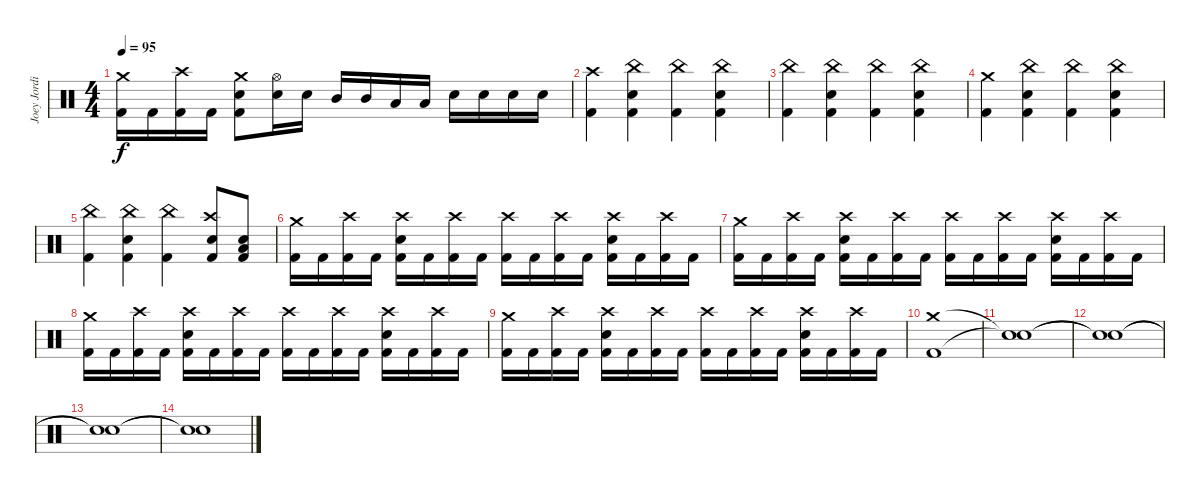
\track ("Joey Jordison" "Joey Jordi") {instrument percussion}
\staff {score}
\articulation defaults
\ts (4 4)
\tempo 95
\clef neutral
\ks c
("Crash medium (hit)" "Kick (hit) 2").16{dy f} "Kick (hit) 2".16 ("Crash high (hit)" "Kick (hit) 2").16 "Kick (hit) 2".16 ("Crash medium (hit)" "Electric Snare (hit)" "Kick (hit) 2").8 ("Hi-Hat (open)" "Electric Snare (hit)").16 "Electric Snare (hit)".16 "Mid Tom (hit)".16 "Mid Tom (hit)".16 "Low Tom (hit)".16 "Low Tom (hit)".16 "Electric Snare (hit)".16 "Electric Snare (hit)".16 "Electric Snare (hit)".16 "Electric Snare (hit)".16 |
("Crash high (hit)" "Kick (hit) 2").4 ("China (hit)" "Electric Snare (hit)" "Kick (hit) 2").4 ("China (hit)" "Kick (hit) 2").4 ("China (hit)" "Electric Snare (hit)" "Kick (hit) 2").4 |
("China (hit)" "Kick (hit) 2").4 ("China (hit)" "Electric Snare (hit)" "Kick (hit) 2").4 ("China (hit)" "Kick (hit) 2").4 ("China (hit)" "Electric Snare (hit)" "Kick (hit) 2").4 |
("Crash medium (hit)" "Kick (hit) 2").4 ("China (hit)" "Electric Snare (hit)" "Kick (hit) 2").4 ("China (hit)" "Kick (hit) 2").4 ("China (hit)" "Electric Snare (hit)" "Kick (hit) 2").4 |
("China (hit)" "Kick (hit) 2").4 ("China (hit)" "Electric Snare (hit)" "Kick (hit) 2").4 ("China (hit)" "Kick (hit) 2").4 ("Crash high (hit)" "Electric Snare (hit)" "Kick (hit) 2").8 ("Low Floor Tom (hit)" "Electric Snare (hit)" "Kick (hit) 2").8 |
("Crash medium (hit)" "Kick (hit) 2").16 "Kick (hit) 2".16 ("Crash high (hit)" "Kick (hit) 2").16 "Kick (hit) 2".16 ("Crash high (hit)" "Electric Snare (hit)" "Kick (hit) 2").16 "Kick (hit) 2".16 ("Crash high (hit)" "Kick (hit) 2").16 "Kick (hit) 2".16 ("Crash high (hit)" "Kick (hit) 2").16 "Kick (hit) 2".16 ("Crash high (hit)" "Kick (hit) 2").16 "Kick (hit) 2".16 ("Crash high (hit)" "Electric Snare (hit)" "Kick (hit) 2").16 "Kick (hit) 2".16 ("Crash high (hit)" "Kick (hit) 2").16 "Kick (hit) 2".16 |
("Crash medium (hit)" "Kick (hit) 2").16 "Kick (hit) 2".16 ("Crash high (hit)" "Kick (hit) 2").16 "Kick (hit) 2".16 ("Crash high (hit)" "Electric Snare (hit)" "Kick (hit) 2").16 "Kick (hit) 2".16 ("Crash high (hit)" "Kick (hit) 2").16 "Kick (hit) 2".16 ("Crash high (hit)" "Kick (hit) 2").16 "Kick (hit) 2".16 ("Crash high (hit)" "Kick (hit) 2").16 "Kick (hit) 2".16 ("Crash high (hit)" "Electric Snare (hit)" "Kick (hit) 2").16 "Kick (hit) 2".16 ("Crash high (hit)" "Kick (hit) 2").16 "Kick (hit) 2".16 |
("Crash medium (hit)" "Kick (hit) 2").16 "Kick (hit) 2".16 ("Crash high (hit)" "Kick (hit) 2").16 "Kick (hit) 2".16 ("Crash high (hit)" "Electric Snare (hit)" "Kick (hit) 2").16 "Kick (hit) 2".16 ("Crash high (hit)" "Kick (hit) 2").16 "Kick (hit) 2".16 ("Crash high (hit)" "Kick (hit) 2").16 "Kick (hit) 2".16 ("Crash high (hit)" "Kick (hit) 2").16 "Kick (hit) 2".16 ("Crash high (hit)" "Electric Snare (hit)" "Kick (hit) 2").16 "Kick (hit) 2".16 ("Crash high (hit)" "Kick (hit) 2").16 "Kick (hit) 2".16 |
("Crash medium (hit)" "Kick (hit) 2").16 "Kick (hit) 2".16 ("Crash high (hit)" "Kick (hit) 2").16 "Kick (hit) 2".16 ("Crash high (hit)" "Electric Snare (hit)" "Kick (hit) 2").16 "Kick (hit) 2".16 ("Crash high (hit)" "Kick (hit) 2").16 "Kick (hit) 2".16 ("Crash high (hit)" "Kick (hit) 2").16 "Kick (hit) 2".16 ("Crash high (hit)" "Kick (hit) 2").16 "Kick (hit) 2".16 ("Crash high (hit)" "Electric Snare (hit)" "Kick (hit) 2").16 "Kick (hit) 2".16 ("Crash high (hit)" "Kick (hit) 2").16 "Kick (hit) 2".16 |
("Crash medium (hit)" "Kick (hit) 2").1 |
("Snare (hit)"{t} "Snare (hit)"{t}).1 |
("Snare (hit)"{t} "Snare (hit)"{t}).1 |
("Snare (hit)"{t} "Snare (hit)"{t}).1 |
("Snare (hit)"{t} "Snare (hit)"{t}).1
